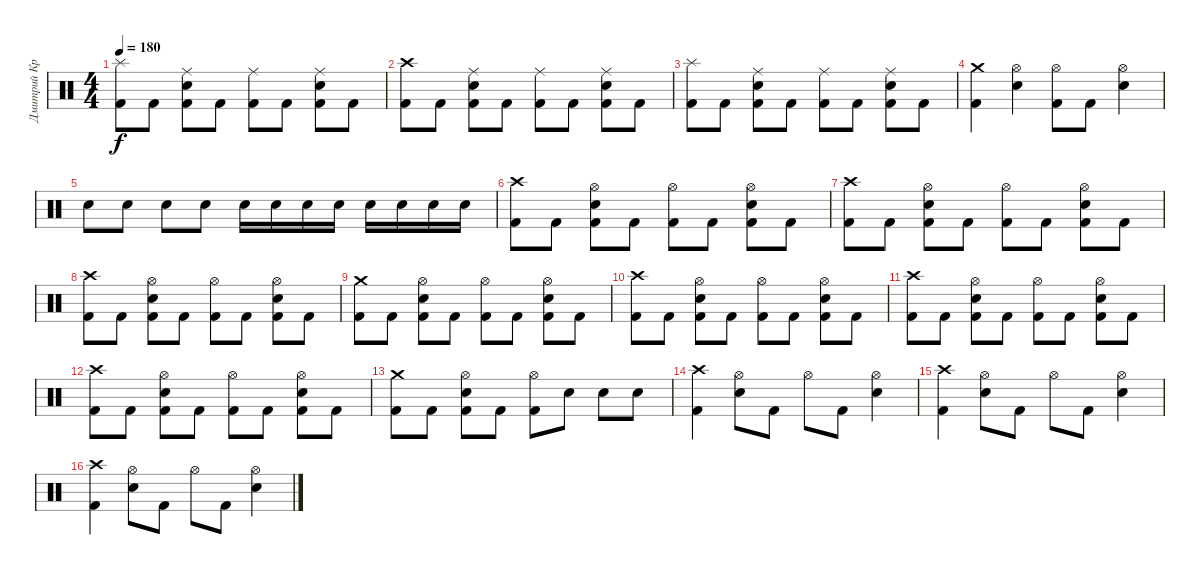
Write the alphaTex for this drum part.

\track ("Дмитрий Кривенков" "Дмитрий Кр") {instrument percussion}
\staff {score}
\articulation defaults
\ts (4 4)
\tempo 180
\clef neutral
\ks c
("Kick (hit) 2" "Splash (hit)").8{dy f} "Kick (hit) 2".8 ("Kick (hit) 2" "Electric Snare (hit)" "Ride (middle)").8 "Kick (hit) 2".8 ("Ride (middle)" "Kick (hit) 2").8 "Kick (hit) 2".8 ("Ride (middle)" "Electric Snare (hit)" "Kick (hit) 2").8 "Kick (hit) 2".8 |
("Kick (hit) 2" "Crash high (hit)").8 "Kick (hit) 2".8 ("Kick (hit) 2" "Electric Snare (hit)" "Ride (middle)").8 "Kick (hit) 2".8 ("Kick (hit) 2" "Ride (middle)").8 "Kick (hit) 2".8 ("Ride (middle)" "Electric Snare (hit)" "Kick (hit) 2").8 "Kick (hit) 2".8 |
("Kick (hit) 2" "Splash (hit)").8 "Kick (hit) 2".8 ("Kick (hit) 2" "Electric Snare (hit)" "Ride (middle)").8 "Kick (hit) 2".8 ("Ride (middle)" "Kick (hit) 2").8 "Kick (hit) 2".8 ("Ride (middle)" "Electric Snare (hit)" "Kick (hit) 2").8 "Kick (hit) 2".8 |
("Crash medium (hit)" "Kick (hit) 2").4 ("Electric Snare (hit)" "Hi-Hat (open)").4 ("Kick (hit) 2" "Hi-Hat (open)").8 "Kick (hit) 2".8 ("Electric Snare (hit)" "Hi-Hat (open)").4 |
"Electric Snare (hit)".8 "Electric Snare (hit)".8 "Electric Snare (hit)".8 "Electric Snare (hit)".8 "Snare (hit) 2".16 "Snare (hit) 2".16 "Snare (hit) 2".16 "Snare (hit) 2".16 "Snare (hit) 2".16 "Snare (hit) 2".16 "Snare (hit) 2".16 "Electric Snare (hit)".16 |
("Kick (hit) 2" "Crash high (hit)").8 "Kick (hit) 2".8 ("Hi-Hat (open)" "Electric Snare (hit)" "Kick (hit) 2").8 "Kick (hit) 2".8 ("Kick (hit) 2" "Hi-Hat (open)").8 "Kick (hit) 2".8 ("Kick (hit) 2" "Electric Snare (hit)" "Hi-Hat (open)").8 "Kick (hit) 2".8 |
("Kick (hit) 2" "Crash high (hit)").8 "Kick (hit) 2".8 ("Hi-Hat (open)" "Electric Snare (hit)" "Kick (hit) 2").8 "Kick (hit) 2".8 ("Kick (hit) 2" "Hi-Hat (open)").8 "Kick (hit) 2".8 ("Kick (hit) 2" "Electric Snare (hit)" "Hi-Hat (open)").8 "Kick (hit) 2".8 |
("Crash high (hit)" "Kick (hit) 2").8 "Kick (hit) 2".8 ("Kick (hit) 2" "Electric Snare (hit)" "Hi-Hat (open)").8 "Kick (hit) 2".8 ("Kick (hit) 2" "Hi-Hat (open)").8 "Kick (hit) 2".8 ("Kick (hit) 2" "Electric Snare (hit)" "Hi-Hat (open)").8 "Kick (hit) 2".8 |
("Crash medium (hit)" "Kick (hit) 2").8 "Kick (hit) 2".8 ("Kick (hit) 2" "Electric Snare (hit)" "Hi-Hat (open)").8 "Kick (hit) 2".8 ("Kick (hit) 2" "Hi-Hat (open)").8 "Kick (hit) 2".8 ("Kick (hit) 2" "Electric Snare (hit)" "Hi-Hat (open)").8 "Kick (hit) 2".8 |
("Crash high (hit)" "Kick (hit) 2").8 "Kick (hit) 2".8 ("Kick (hit) 2" "Electric Snare (hit)" "Hi-Hat (open)").8 "Kick (hit) 2".8 ("Kick (hit) 2" "Hi-Hat (open)").8 "Kick (hit) 2".8 ("Kick (hit) 2" "Electric Snare (hit)" "Hi-Hat (open)").8 "Kick (hit) 2".8 |
("Crash high (hit)" "Kick (hit) 2").8 "Kick (hit) 2".8 ("Kick (hit) 2" "Electric Snare (hit)" "Hi-Hat (open)").8 "Kick (hit) 2".8 ("Kick (hit) 2" "Hi-Hat (open)").8 "Kick (hit) 2".8 ("Kick (hit) 2" "Electric Snare (hit)" "Hi-Hat (open)").8 "Kick (hit) 2".8 |
("Crash high (hit)" "Kick (hit) 2").8 "Kick (hit) 2".8 ("Kick (hit) 2" "Electric Snare (hit)" "Hi-Hat (open)").8 "Kick (hit) 2".8 ("Kick (hit) 2" "Hi-Hat (open)").8 "Kick (hit) 2".8 ("Kick (hit) 2" "Electric Snare (hit)" "Hi-Hat (open)").8 "Kick (hit) 2".8 |
("Crash medium (hit)" "Kick (hit) 2").8 "Kick (hit) 2".8 ("Kick (hit) 2" "Electric Snare (hit)" "Hi-Hat (open)").8 "Kick (hit) 2".8 ("Kick (hit) 2" "Hi-Hat (open)").8 "Electric Snare (hit)".8 "Electric Snare (hit)".8 "Electric Snare (hit)".8 |
("Crash high (hit)" "Kick (hit) 2").4 ("Electric Snare (hit)" "Hi-Hat (open)").8 "Kick (hit) 2".8 "Hi-Hat (open)".8 "Kick (hit) 2".8 ("Hi-Hat (open)" "Electric Snare (hit)").4 |
("Kick (hit) 2" "Crash high (hit)").4 ("Electric Snare (hit)" "Hi-Hat (open)").8 "Kick (hit) 2".8 "Hi-Hat (open)".8 "Kick (hit) 2".8 ("Electric Snare (hit)" "Hi-Hat (open)").4 |
("Kick (hit) 2" "Crash high (hit)").4 ("Electric Snare (hit)" "Hi-Hat (open)").8 "Kick (hit) 2".8 "Hi-Hat (open)".8 "Kick (hit) 2".8 ("Electric Snare (hit)" "Hi-Hat (open)").4
